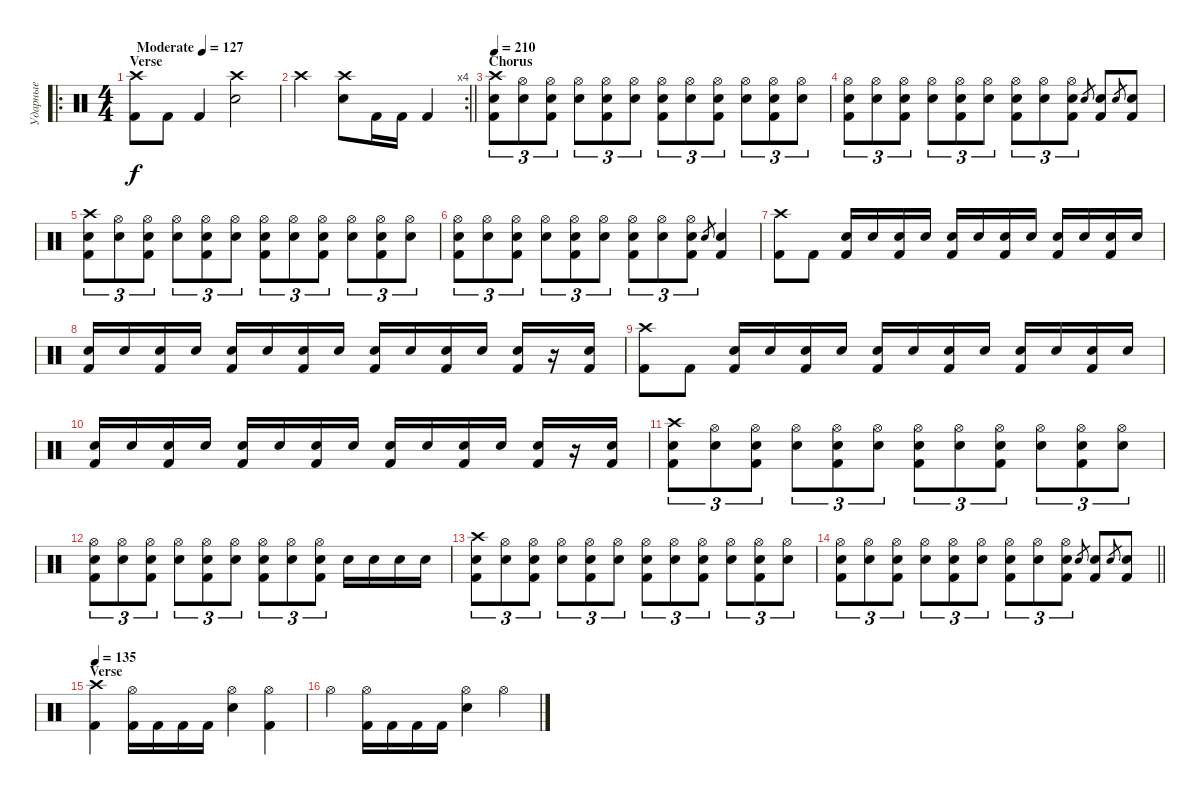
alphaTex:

\track ("Ударные" "Ударные") {instrument percussion}
\staff {score}
\articulation defaults
\ro
\ts (4 4)
\section ("" "Verse")
\tempo (127 "Moderate")
\clef neutral
\ks c
("Kick (hit) 2" "Crash high (hit)").8{dy f} "Kick (hit) 2".8 "Kick (hit) 2".4 ("Crash high (hit)" "Electric Snare (hit)").2 |
\rc 4
\barLineRight lightlight "Crash high (hit)".2
("Crash high (hit)" "Electric Snare (hit)").8 "Kick (hit) 2".16 "Kick (hit) 2".16 "Kick (hit) 2".4 |
\section ("" "Chorus")
\tempo 210
("Electric Snare (hit)" "Kick (hit) 2" "Crash high (hit)").8{tu (3 2)} ("Electric Snare (hit)" "Hi-Hat (open)").8{tu (3 2)} ("Electric Snare (hit)" "Kick (hit) 2" "Hi-Hat (open)").8{tu (3 2)} ("Electric Snare (hit)" "Hi-Hat (open)").8{tu (3 2)} ("Electric Snare (hit)" "Kick (hit) 2" "Hi-Hat (open)").8{tu (3 2)} ("Electric Snare (hit)" "Hi-Hat (open)").8{tu (3 2)} ("Electric Snare (hit)" "Kick (hit) 2" "Hi-Hat (open)").8{tu (3 2)} ("Electric Snare (hit)" "Hi-Hat (open)").8{tu (3 2)} ("Electric Snare (hit)" "Kick (hit) 2" "Hi-Hat (open)").8{tu (3 2)} ("Electric Snare (hit)" "Hi-Hat (open)").8{tu (3 2)} ("Electric Snare (hit)" "Kick (hit) 2" "Hi-Hat (open)").8{tu (3 2)} ("Electric Snare (hit)" "Hi-Hat (open)").8{tu (3 2)} |
("Electric Snare (hit)" "Kick (hit) 2" "Hi-Hat (open)").8{tu (3 2)} ("Electric Snare (hit)" "Hi-Hat (open)").8{tu (3 2)} ("Electric Snare (hit)" "Kick (hit) 2" "Hi-Hat (open)").8{tu (3 2)} ("Electric Snare (hit)" "Hi-Hat (open)").8{tu (3 2)} ("Electric Snare (hit)" "Kick (hit) 2" "Hi-Hat (open)").8{tu (3 2)} ("Electric Snare (hit)" "Hi-Hat (open)").8{tu (3 2)} ("Electric Snare (hit)" "Kick (hit) 2" "Hi-Hat (open)").8{tu (3 2)} ("Electric Snare (hit)" "Hi-Hat (open)").8{tu (3 2)} ("Electric Snare (hit)" "Kick (hit) 2" "Hi-Hat (open)").8{tu (3 2)} "Electric Snare (hit)".8{gr} ("Electric Snare (hit)" "Kick (hit) 2").8 "Electric Snare (hit)".8{gr} ("Electric Snare (hit)" "Kick (hit) 2").8 |
("Electric Snare (hit)" "Kick (hit) 2" "Crash high (hit)").8{tu (3 2)} ("Electric Snare (hit)" "Hi-Hat (open)").8{tu (3 2)} ("Electric Snare (hit)" "Kick (hit) 2" "Hi-Hat (open)").8{tu (3 2)} ("Electric Snare (hit)" "Hi-Hat (open)").8{tu (3 2)} ("Electric Snare (hit)" "Kick (hit) 2" "Hi-Hat (open)").8{tu (3 2)} ("Electric Snare (hit)" "Hi-Hat (open)").8{tu (3 2)} ("Electric Snare (hit)" "Kick (hit) 2" "Hi-Hat (open)").8{tu (3 2)} ("Electric Snare (hit)" "Hi-Hat (open)").8{tu (3 2)} ("Electric Snare (hit)" "Kick (hit) 2" "Hi-Hat (open)").8{tu (3 2)} ("Electric Snare (hit)" "Hi-Hat (open)").8{tu (3 2)} ("Electric Snare (hit)" "Kick (hit) 2" "Hi-Hat (open)").8{tu (3 2)} ("Electric Snare (hit)" "Hi-Hat (open)").8{tu (3 2)} |
("Electric Snare (hit)" "Kick (hit) 2" "Hi-Hat (open)").8{tu (3 2)} ("Electric Snare (hit)" "Hi-Hat (open)").8{tu (3 2)} ("Electric Snare (hit)" "Kick (hit) 2" "Hi-Hat (open)").8{tu (3 2)} ("Electric Snare (hit)" "Hi-Hat (open)").8{tu (3 2)} ("Electric Snare (hit)" "Kick (hit) 2" "Hi-Hat (open)").8{tu (3 2)} ("Electric Snare (hit)" "Hi-Hat (open)").8{tu (3 2)} ("Electric Snare (hit)" "Kick (hit) 2" "Hi-Hat (open)").8{tu (3 2)} ("Electric Snare (hit)" "Hi-Hat (open)").8{tu (3 2)} ("Electric Snare (hit)" "Kick (hit) 2" "Hi-Hat (open)").8{tu (3 2)} "Electric Snare (hit)".8{gr} ("Electric Snare (hit)" "Kick (hit) 2").4 |
("Kick (hit) 2" "Crash high (hit)").8 "Kick (hit) 2".8 ("Electric Snare (hit)" "Kick (hit) 2").16 "Electric Snare (hit)".16 ("Electric Snare (hit)" "Kick (hit) 2").16 "Electric Snare (hit)".16 ("Electric Snare (hit)" "Kick (hit) 2").16 "Electric Snare (hit)".16 ("Electric Snare (hit)" "Kick (hit) 2").16 "Electric Snare (hit)".16 ("Electric Snare (hit)" "Kick (hit) 2").16 "Electric Snare (hit)".16 ("Electric Snare (hit)" "Kick (hit) 2").16 "Electric Snare (hit)".16 |
("Electric Snare (hit)" "Kick (hit) 2").16 "Electric Snare (hit)".16 ("Electric Snare (hit)" "Kick (hit) 2").16 "Electric Snare (hit)".16 ("Electric Snare (hit)" "Kick (hit) 2").16 "Electric Snare (hit)".16 ("Electric Snare (hit)" "Kick (hit) 2").16 "Electric Snare (hit)".16 ("Electric Snare (hit)" "Kick (hit) 2").16 "Electric Snare (hit)".16 ("Electric Snare (hit)" "Kick (hit) 2").16 "Electric Snare (hit)".16 ("Electric Snare (hit)" "Kick (hit) 2").16 r.16 ("Electric Snare (hit)" "Kick (hit) 2").16 |
("Kick (hit) 2" "Crash high (hit)").8 "Kick (hit) 2".8 ("Electric Snare (hit)" "Kick (hit) 2").16 "Electric Snare (hit)".16 ("Electric Snare (hit)" "Kick (hit) 2").16 "Electric Snare (hit)".16 ("Electric Snare (hit)" "Kick (hit) 2").16 "Electric Snare (hit)".16 ("Electric Snare (hit)" "Kick (hit) 2").16 "Electric Snare (hit)".16 ("Electric Snare (hit)" "Kick (hit) 2").16 "Electric Snare (hit)".16 ("Electric Snare (hit)" "Kick (hit) 2").16 "Electric Snare (hit)".16 |
("Electric Snare (hit)" "Kick (hit) 2").16 "Electric Snare (hit)".16 ("Electric Snare (hit)" "Kick (hit) 2").16 "Electric Snare (hit)".16 ("Electric Snare (hit)" "Kick (hit) 2").16 "Electric Snare (hit)".16 ("Electric Snare (hit)" "Kick (hit) 2").16 "Electric Snare (hit)".16 ("Electric Snare (hit)" "Kick (hit) 2").16 "Electric Snare (hit)".16 ("Electric Snare (hit)" "Kick (hit) 2").16 "Electric Snare (hit)".16 ("Electric Snare (hit)" "Kick (hit) 2").16 r.16 ("Electric Snare (hit)" "Kick (hit) 2").16 |
("Electric Snare (hit)" "Kick (hit) 2" "Crash high (hit)").8{tu (3 2)} ("Electric Snare (hit)" "Hi-Hat (open)").8{tu (3 2)} ("Electric Snare (hit)" "Kick (hit) 2" "Hi-Hat (open)").8{tu (3 2)} ("Electric Snare (hit)" "Hi-Hat (open)").8{tu (3 2)} ("Electric Snare (hit)" "Kick (hit) 2" "Hi-Hat (open)").8{tu (3 2)} ("Electric Snare (hit)" "Hi-Hat (open)").8{tu (3 2)} ("Electric Snare (hit)" "Kick (hit) 2" "Hi-Hat (open)").8{tu (3 2)} ("Electric Snare (hit)" "Hi-Hat (open)").8{tu (3 2)} ("Electric Snare (hit)" "Kick (hit) 2" "Hi-Hat (open)").8{tu (3 2)} ("Electric Snare (hit)" "Hi-Hat (open)").8{tu (3 2)} ("Electric Snare (hit)" "Kick (hit) 2" "Hi-Hat (open)").8{tu (3 2)} ("Electric Snare (hit)" "Hi-Hat (open)").8{tu (3 2)} |
("Electric Snare (hit)" "Kick (hit) 2" "Hi-Hat (open)").8{tu (3 2)} ("Electric Snare (hit)" "Hi-Hat (open)").8{tu (3 2)} ("Electric Snare (hit)" "Kick (hit) 2" "Hi-Hat (open)").8{tu (3 2)} ("Electric Snare (hit)" "Hi-Hat (open)").8{tu (3 2)} ("Electric Snare (hit)" "Kick (hit) 2" "Hi-Hat (open)").8{tu (3 2)} ("Electric Snare (hit)" "Hi-Hat (open)").8{tu (3 2)} ("Electric Snare (hit)" "Kick (hit) 2" "Hi-Hat (open)").8{tu (3 2)} ("Electric Snare (hit)" "Hi-Hat (open)").8{tu (3 2)} ("Electric Snare (hit)" "Kick (hit) 2" "Hi-Hat (open)").8{tu (3 2)} "Electric Snare (hit)".16 "Electric Snare (hit)".16 "Electric Snare (hit)".16 "Electric Snare (hit)".16 |
("Electric Snare (hit)" "Kick (hit) 2" "Crash high (hit)").8{tu (3 2)} ("Electric Snare (hit)" "Hi-Hat (open)").8{tu (3 2)} ("Electric Snare (hit)" "Kick (hit) 2" "Hi-Hat (open)").8{tu (3 2)} ("Electric Snare (hit)" "Hi-Hat (open)").8{tu (3 2)} ("Electric Snare (hit)" "Kick (hit) 2" "Hi-Hat (open)").8{tu (3 2)} ("Electric Snare (hit)" "Hi-Hat (open)").8{tu (3 2)} ("Electric Snare (hit)" "Kick (hit) 2" "Hi-Hat (open)").8{tu (3 2)} ("Electric Snare (hit)" "Hi-Hat (open)").8{tu (3 2)} ("Electric Snare (hit)" "Kick (hit) 2" "Hi-Hat (open)").8{tu (3 2)} ("Electric Snare (hit)" "Hi-Hat (open)").8{tu (3 2)} ("Electric Snare (hit)" "Kick (hit) 2" "Hi-Hat (open)").8{tu (3 2)} ("Electric Snare (hit)" "Hi-Hat (open)").8{tu (3 2)} |
\barLineRight lightlight
("Electric Snare (hit)" "Kick (hit) 2" "Hi-Hat (open)").8{tu (3 2)} ("Electric Snare (hit)" "Hi-Hat (open)").8{tu (3 2)} ("Electric Snare (hit)" "Kick (hit) 2" "Hi-Hat (open)").8{tu (3 2)} ("Electric Snare (hit)" "Hi-Hat (open)").8{tu (3 2)} ("Electric Snare (hit)" "Kick (hit) 2" "Hi-Hat (open)").8{tu (3 2)} ("Electric Snare (hit)" "Hi-Hat (open)").8{tu (3 2)} ("Electric Snare (hit)" "Kick (hit) 2" "Hi-Hat (open)").8{tu (3 2)} ("Electric Snare (hit)" "Hi-Hat (open)").8{tu (3 2)} ("Electric Snare (hit)" "Kick (hit) 2" "Hi-Hat (open)").8{tu (3 2)} "Electric Snare (hit)".8{gr} ("Electric Snare (hit)" "Kick (hit) 2").8 "Electric Snare (hit)".8{gr} ("Electric Snare (hit)" "Kick (hit) 2").8 |
\section ("" "Verse")
\tempo 135
("Crash high (hit)" "Kick (hit) 2").4 ("Hi-Hat (open)" "Kick (hit) 2").16 "Kick (hit) 2".16 "Kick (hit) 2".16 "Kick (hit) 2".16 ("Hi-Hat (open)" "Electric Snare (hit)").4 ("Hi-Hat (open)" "Kick (hit) 2").4 |
"Hi-Hat (open)".4 ("Hi-Hat (open)" "Kick (hit) 2").16 "Kick (hit) 2".16 "Kick (hit) 2".16 "Kick (hit) 2".16 ("Hi-Hat (open)" "Electric Snare (hit)").4 "Hi-Hat (open)".4
